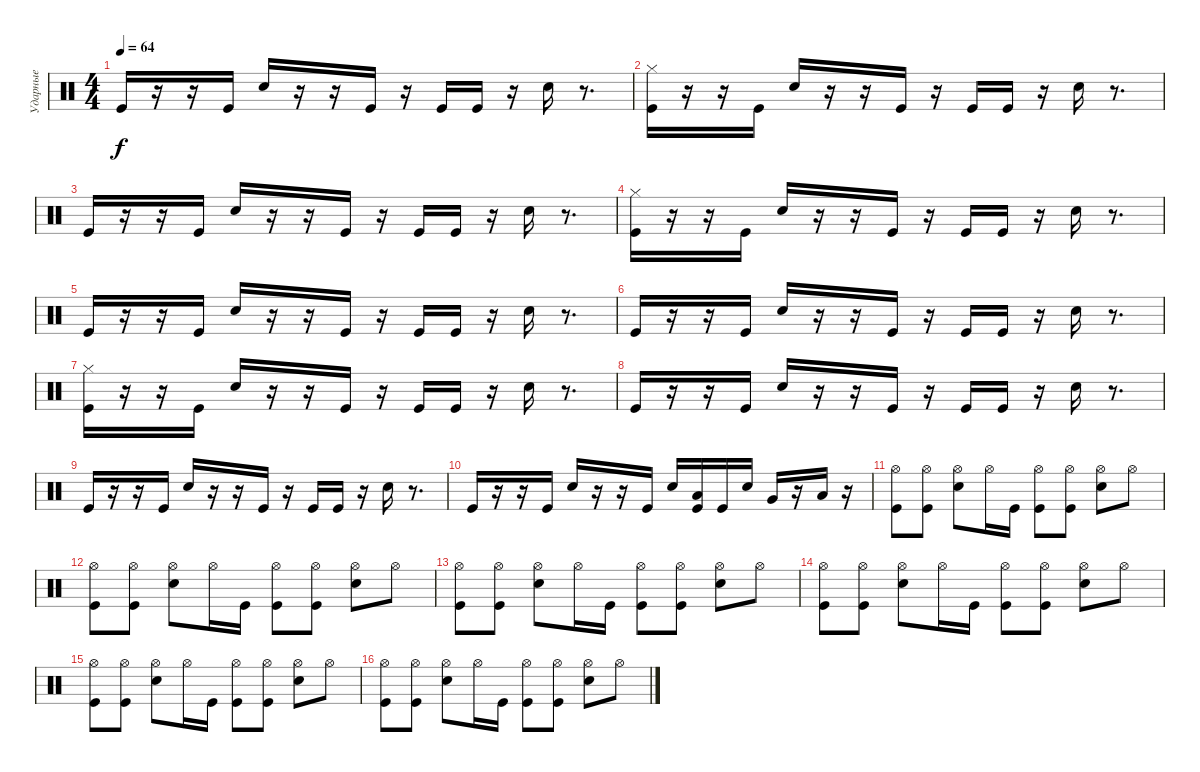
\track ("Ударные" "Ударные") {instrument percussion}
\staff {score}
\articulation defaults
\ts (4 4)
\tempo 64
\clef neutral
\ks c "Kick (hit)".16{dy f}
r.16 r.16 "Kick (hit)".16 "Snare (hit) 2".16 r.16 r.16 "Kick (hit)".16 r.16 "Kick (hit)".16 "Kick (hit)".16 r.16 "Snare (hit) 2".16 r.8{d} |
("Kick (hit)" "Hi-Hat (closed)").16 r.16 r.16 "Kick (hit)".16 "Snare (hit) 2".16 r.16 r.16 "Kick (hit)".16 r.16 "Kick (hit)".16 "Kick (hit)".16 r.16 "Snare (hit) 2".16 r.8{d} |
"Kick (hit)".16 r.16 r.16 "Kick (hit)".16 "Snare (hit) 2".16 r.16 r.16 "Kick (hit)".16 r.16 "Kick (hit)".16 "Kick (hit)".16 r.16 "Snare (hit) 2".16 r.8{d} |
("Kick (hit)" "Hi-Hat (closed)").16 r.16 r.16 "Kick (hit)".16 "Snare (hit) 2".16 r.16 r.16 "Kick (hit)".16 r.16 "Kick (hit)".16 "Kick (hit)".16 r.16 "Snare (hit) 2".16 r.8{d} |
"Kick (hit)".16 r.16 r.16 "Kick (hit)".16 "Snare (hit) 2".16 r.16 r.16 "Kick (hit)".16 r.16 "Kick (hit)".16 "Kick (hit)".16 r.16 "Snare (hit) 2".16 r.8{d} |
"Kick (hit)".16 r.16 r.16 "Kick (hit)".16 "Snare (hit) 2".16 r.16 r.16 "Kick (hit)".16 r.16 "Kick (hit)".16 "Kick (hit)".16 r.16 "Snare (hit) 2".16 r.8{d} |
("Kick (hit)" "Hi-Hat (closed)").16 r.16 r.16 "Kick (hit)".16 "Snare (hit) 2".16 r.16 r.16 "Kick (hit)".16 r.16 "Kick (hit)".16 "Kick (hit)".16 r.16 "Snare (hit) 2".16 r.8{d} |
"Kick (hit)".16 r.16 r.16 "Kick (hit)".16 "Snare (hit) 2".16 r.16 r.16 "Kick (hit)".16 r.16 "Kick (hit)".16 "Kick (hit)".16 r.16 "Snare (hit) 2".16 r.8{d} |
"Kick (hit)".16 r.16 r.16 "Kick (hit)".16 "Snare (hit) 2".16 r.16 r.16 "Kick (hit)".16 r.16 "Kick (hit)".16 "Kick (hit)".16 r.16 "Snare (hit) 2".16 r.8{d} |
"Kick (hit)".16 r.16 r.16 "Kick (hit)".16 "Snare (hit) 2".16 r.16 r.16 "Kick (hit)".16 "Snare (hit) 2".16 ("Kick (hit)" "Low Tom (hit)").16 "Kick (hit)".16 "Snare (hit) 2".16 "Very Low Tom (hit)".16 r.16 "Low Floor Tom (hit)".16 r.16 |
("Hi-Hat (open)" "Kick (hit)").8 ("Hi-Hat (open)" "Kick (hit)").8 ("Snare (hit) 2" "Hi-Hat (open)").8 "Hi-Hat (open)".16 "Kick (hit)".16 ("Hi-Hat (open)" "Kick (hit)").8 ("Hi-Hat (open)" "Kick (hit)").8 ("Hi-Hat (open)" "Snare (hit) 2").8 "Hi-Hat (open)".8 |
("Hi-Hat (open)" "Kick (hit)").8 ("Hi-Hat (open)" "Kick (hit)").8 ("Snare (hit) 2" "Hi-Hat (open)").8 "Hi-Hat (open)".16 "Kick (hit)".16 ("Hi-Hat (open)" "Kick (hit)").8 ("Hi-Hat (open)" "Kick (hit)").8 ("Hi-Hat (open)" "Snare (hit) 2").8 "Hi-Hat (open)".8 |
("Hi-Hat (open)" "Kick (hit)").8 ("Hi-Hat (open)" "Kick (hit)").8 ("Snare (hit) 2" "Hi-Hat (open)").8 "Hi-Hat (open)".16 "Kick (hit)".16 ("Hi-Hat (open)" "Kick (hit)").8 ("Hi-Hat (open)" "Kick (hit)").8 ("Hi-Hat (open)" "Snare (hit) 2").8 "Hi-Hat (open)".8 |
("Hi-Hat (open)" "Kick (hit)").8 ("Hi-Hat (open)" "Kick (hit)").8 ("Snare (hit) 2" "Hi-Hat (open)").8 "Hi-Hat (open)".16 "Kick (hit)".16 ("Hi-Hat (open)" "Kick (hit)").8 ("Hi-Hat (open)" "Kick (hit)").8 ("Hi-Hat (open)" "Snare (hit) 2").8 "Hi-Hat (open)".8 |
("Hi-Hat (open)" "Kick (hit)").8 ("Hi-Hat (open)" "Kick (hit)").8 ("Snare (hit) 2" "Hi-Hat (open)").8 "Hi-Hat (open)".16 "Kick (hit)".16 ("Hi-Hat (open)" "Kick (hit)").8 ("Hi-Hat (open)" "Kick (hit)").8 ("Hi-Hat (open)" "Snare (hit) 2").8 "Hi-Hat (open)".8 |
("Hi-Hat (open)" "Kick (hit)").8 ("Hi-Hat (open)" "Kick (hit)").8 ("Snare (hit) 2" "Hi-Hat (open)").8 "Hi-Hat (open)".16 "Kick (hit)".16 ("Hi-Hat (open)" "Kick (hit)").8 ("Hi-Hat (open)" "Kick (hit)").8 ("Hi-Hat (open)" "Snare (hit) 2").8 "Hi-Hat (open)".8
